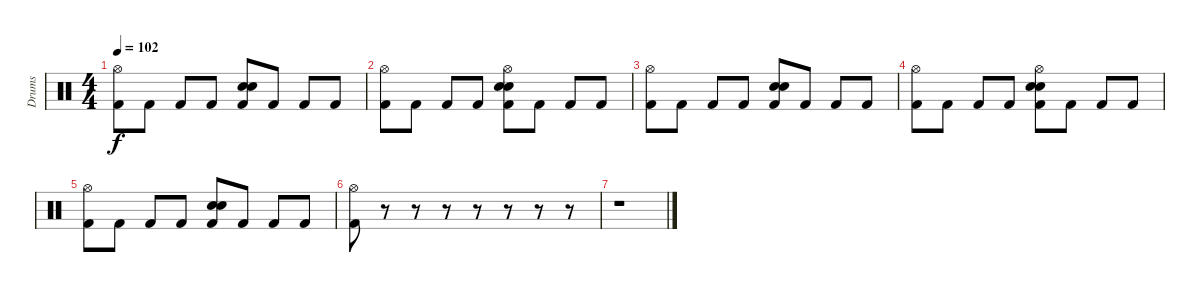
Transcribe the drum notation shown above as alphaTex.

\track ("Drums" "Drums") {instrument percussion}
\staff {score}
\articulation defaults
\ts (4 4)
\tempo 102
\clef neutral
\ks c
("Hi-Hat (open)" "Kick (hit) 2").8{dy f} "Kick (hit) 2".8 "Kick (hit) 2".8 "Kick (hit) 2".8 ("Electric Snare (hit)" "Electric Snare (hit)" "Kick (hit) 2").8 "Kick (hit) 2".8 "Kick (hit) 2".8 "Kick (hit) 2".8 |
("Hi-Hat (open)" "Kick (hit) 2").8 "Kick (hit) 2".8 "Kick (hit) 2".8 "Kick (hit) 2".8 ("Hi-Hat (open)" "Electric Snare (hit)" "Electric Snare (hit)" "Kick (hit) 2").8 "Kick (hit) 2".8 "Kick (hit) 2".8 "Kick (hit) 2".8 |
("Hi-Hat (open)" "Kick (hit) 2").8 "Kick (hit) 2".8 "Kick (hit) 2".8 "Kick (hit) 2".8 ("Electric Snare (hit)" "Electric Snare (hit)" "Kick (hit) 2").8 "Kick (hit) 2".8 "Kick (hit) 2".8 "Kick (hit) 2".8 |
("Hi-Hat (open)" "Kick (hit) 2").8 "Kick (hit) 2".8 "Kick (hit) 2".8 "Kick (hit) 2".8 ("Hi-Hat (open)" "Electric Snare (hit)" "Electric Snare (hit)" "Kick (hit) 2").8 "Kick (hit) 2".8 "Kick (hit) 2".8 "Kick (hit) 2".8 |
("Hi-Hat (open)" "Kick (hit) 2").8 "Kick (hit) 2".8 "Kick (hit) 2".8 "Kick (hit) 2".8 ("Electric Snare (hit)" "Electric Snare (hit)" "Kick (hit) 2").8 "Kick (hit) 2".8 "Kick (hit) 2".8 "Kick (hit) 2".8 |
("Hi-Hat (open)" "Kick (hit) 2").8 r.8 r.8 r.8 r.8 r.8 r.8 r.8 |
r.1
